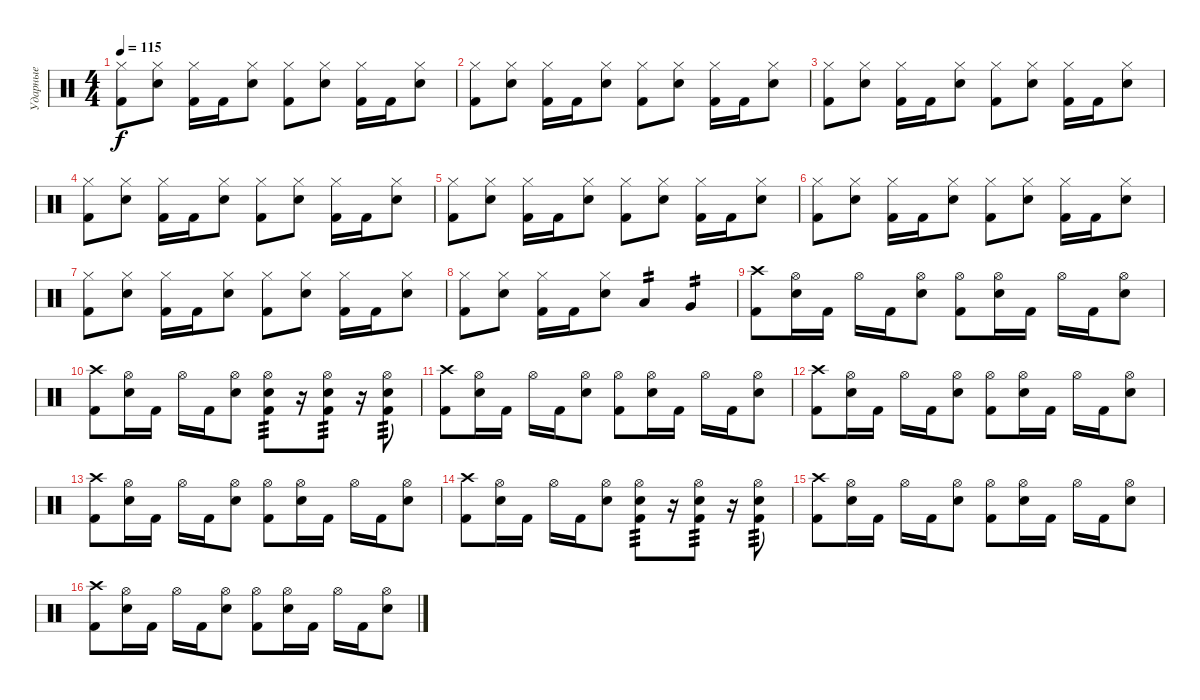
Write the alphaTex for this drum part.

\track ("Ударные" "Ударные") {instrument percussion}
\staff {score}
\articulation defaults
\ts (4 4)
\tempo 115
\clef neutral
\ks c
("Hi-Hat (closed)" "Kick (hit) 2").8{dy f} ("Hi-Hat (closed)" "Electric Snare (hit)").8 ("Hi-Hat (closed)" "Kick (hit) 2").16 "Kick (hit) 2".16 ("Hi-Hat (closed)" "Electric Snare (hit)").8 ("Hi-Hat (closed)" "Kick (hit) 2").8 ("Hi-Hat (closed)" "Electric Snare (hit)").8 ("Hi-Hat (closed)" "Kick (hit) 2").16 "Kick (hit) 2".16 ("Hi-Hat (closed)" "Electric Snare (hit)").8 |
("Hi-Hat (closed)" "Kick (hit) 2").8 ("Hi-Hat (closed)" "Electric Snare (hit)").8 ("Hi-Hat (closed)" "Kick (hit) 2").16 "Kick (hit) 2".16 ("Hi-Hat (closed)" "Electric Snare (hit)").8 ("Hi-Hat (closed)" "Kick (hit) 2").8 ("Hi-Hat (closed)" "Electric Snare (hit)").8 ("Hi-Hat (closed)" "Kick (hit) 2").16 "Kick (hit) 2".16 ("Hi-Hat (closed)" "Electric Snare (hit)").8 |
("Hi-Hat (closed)" "Kick (hit) 2").8 ("Hi-Hat (closed)" "Electric Snare (hit)").8 ("Hi-Hat (closed)" "Kick (hit) 2").16 "Kick (hit) 2".16 ("Hi-Hat (closed)" "Electric Snare (hit)").8 ("Hi-Hat (closed)" "Kick (hit) 2").8 ("Hi-Hat (closed)" "Electric Snare (hit)").8 ("Hi-Hat (closed)" "Kick (hit) 2").16 "Kick (hit) 2".16 ("Hi-Hat (closed)" "Electric Snare (hit)").8 |
("Hi-Hat (closed)" "Kick (hit) 2").8 ("Hi-Hat (closed)" "Electric Snare (hit)").8 ("Hi-Hat (closed)" "Kick (hit) 2").16 "Kick (hit) 2".16 ("Hi-Hat (closed)" "Electric Snare (hit)").8 ("Hi-Hat (closed)" "Kick (hit) 2").8 ("Hi-Hat (closed)" "Electric Snare (hit)").8 ("Hi-Hat (closed)" "Kick (hit) 2").16 "Kick (hit) 2".16 ("Hi-Hat (closed)" "Electric Snare (hit)").8 |
("Hi-Hat (closed)" "Kick (hit) 2").8 ("Hi-Hat (closed)" "Electric Snare (hit)").8 ("Hi-Hat (closed)" "Kick (hit) 2").16 "Kick (hit) 2".16 ("Hi-Hat (closed)" "Electric Snare (hit)").8 ("Hi-Hat (closed)" "Kick (hit) 2").8 ("Hi-Hat (closed)" "Electric Snare (hit)").8 ("Hi-Hat (closed)" "Kick (hit) 2").16 "Kick (hit) 2".16 ("Hi-Hat (closed)" "Electric Snare (hit)").8 |
("Hi-Hat (closed)" "Kick (hit) 2").8 ("Hi-Hat (closed)" "Electric Snare (hit)").8 ("Hi-Hat (closed)" "Kick (hit) 2").16 "Kick (hit) 2".16 ("Hi-Hat (closed)" "Electric Snare (hit)").8 ("Hi-Hat (closed)" "Kick (hit) 2").8 ("Hi-Hat (closed)" "Electric Snare (hit)").8 ("Hi-Hat (closed)" "Kick (hit) 2").16 "Kick (hit) 2".16 ("Hi-Hat (closed)" "Electric Snare (hit)").8 |
("Hi-Hat (closed)" "Kick (hit) 2").8 ("Hi-Hat (closed)" "Electric Snare (hit)").8 ("Hi-Hat (closed)" "Kick (hit) 2").16 "Kick (hit) 2".16 ("Hi-Hat (closed)" "Electric Snare (hit)").8 ("Hi-Hat (closed)" "Kick (hit) 2").8 ("Hi-Hat (closed)" "Electric Snare (hit)").8 ("Hi-Hat (closed)" "Kick (hit) 2").16 "Kick (hit) 2".16 ("Hi-Hat (closed)" "Electric Snare (hit)").8 |
("Hi-Hat (closed)" "Kick (hit) 2").8 ("Hi-Hat (closed)" "Electric Snare (hit)").8 ("Hi-Hat (closed)" "Kick (hit) 2").16 "Kick (hit) 2".16 ("Hi-Hat (closed)" "Electric Snare (hit)").8 "Low Floor Tom (hit)".4{tp 2} "Very Low Tom (hit)".4{tp 2} |
("Kick (hit) 2" "Crash high (hit)").8 ("Electric Snare (hit)" "Hi-Hat (open)").16 "Kick (hit) 2".16 "Hi-Hat (open)".16 "Kick (hit) 2".16 ("Electric Snare (hit)" "Hi-Hat (open)").8 ("Kick (hit) 2" "Hi-Hat (open)").8 ("Electric Snare (hit)" "Hi-Hat (open)").16 "Kick (hit) 2".16 "Hi-Hat (open)".16 "Kick (hit) 2".16 ("Electric Snare (hit)" "Hi-Hat (open)").8 |
("Kick (hit) 2" "Crash high (hit)").8 ("Electric Snare (hit)" "Hi-Hat (open)").16 "Kick (hit) 2".16 "Hi-Hat (open)".16 "Kick (hit) 2".16 ("Electric Snare (hit)" "Hi-Hat (open)").8 ("Hi-Hat (open)" "Electric Snare (hit)" "Kick (hit) 2").8{tp 3} r.16 ("Hi-Hat (open)" "Electric Snare (hit)" "Kick (hit) 2").8{tp 3} r.16 ("Hi-Hat (open)" "Electric Snare (hit)" "Kick (hit) 2").8{tp 3} |
("Kick (hit) 2" "Crash high (hit)").8 ("Electric Snare (hit)" "Hi-Hat (open)").16 "Kick (hit) 2".16 "Hi-Hat (open)".16 "Kick (hit) 2".16 ("Electric Snare (hit)" "Hi-Hat (open)").8 ("Kick (hit) 2" "Hi-Hat (open)").8 ("Electric Snare (hit)" "Hi-Hat (open)").16 "Kick (hit) 2".16 "Hi-Hat (open)".16 "Kick (hit) 2".16 ("Electric Snare (hit)" "Hi-Hat (open)").8 |
("Kick (hit) 2" "Crash high (hit)").8 ("Electric Snare (hit)" "Hi-Hat (open)").16 "Kick (hit) 2".16 "Hi-Hat (open)".16 "Kick (hit) 2".16 ("Electric Snare (hit)" "Hi-Hat (open)").8 ("Kick (hit) 2" "Hi-Hat (open)").8 ("Electric Snare (hit)" "Hi-Hat (open)").16 "Kick (hit) 2".16 "Hi-Hat (open)".16 "Kick (hit) 2".16 ("Electric Snare (hit)" "Hi-Hat (open)").8 |
("Kick (hit) 2" "Crash high (hit)").8 ("Electric Snare (hit)" "Hi-Hat (open)").16 "Kick (hit) 2".16 "Hi-Hat (open)".16 "Kick (hit) 2".16 ("Electric Snare (hit)" "Hi-Hat (open)").8 ("Kick (hit) 2" "Hi-Hat (open)").8 ("Electric Snare (hit)" "Hi-Hat (open)").16 "Kick (hit) 2".16 "Hi-Hat (open)".16 "Kick (hit) 2".16 ("Electric Snare (hit)" "Hi-Hat (open)").8 |
("Kick (hit) 2" "Crash high (hit)").8 ("Electric Snare (hit)" "Hi-Hat (open)").16 "Kick (hit) 2".16 "Hi-Hat (open)".16 "Kick (hit) 2".16 ("Electric Snare (hit)" "Hi-Hat (open)").8 ("Hi-Hat (open)" "Electric Snare (hit)" "Kick (hit) 2").8{tp 3} r.16 ("Hi-Hat (open)" "Electric Snare (hit)" "Kick (hit) 2").8{tp 3} r.16 ("Hi-Hat (open)" "Electric Snare (hit)" "Kick (hit) 2").8{tp 3} |
("Kick (hit) 2" "Crash high (hit)").8 ("Electric Snare (hit)" "Hi-Hat (open)").16 "Kick (hit) 2".16 "Hi-Hat (open)".16 "Kick (hit) 2".16 ("Electric Snare (hit)" "Hi-Hat (open)").8 ("Kick (hit) 2" "Hi-Hat (open)").8 ("Electric Snare (hit)" "Hi-Hat (open)").16 "Kick (hit) 2".16 "Hi-Hat (open)".16 "Kick (hit) 2".16 ("Electric Snare (hit)" "Hi-Hat (open)").8 |
("Kick (hit) 2" "Crash high (hit)").8 ("Electric Snare (hit)" "Hi-Hat (open)").16 "Kick (hit) 2".16 "Hi-Hat (open)".16 "Kick (hit) 2".16 ("Electric Snare (hit)" "Hi-Hat (open)").8 ("Kick (hit) 2" "Hi-Hat (open)").8 ("Electric Snare (hit)" "Hi-Hat (open)").16 "Kick (hit) 2".16 "Hi-Hat (open)".16 "Kick (hit) 2".16 ("Electric Snare (hit)" "Hi-Hat (open)").8
